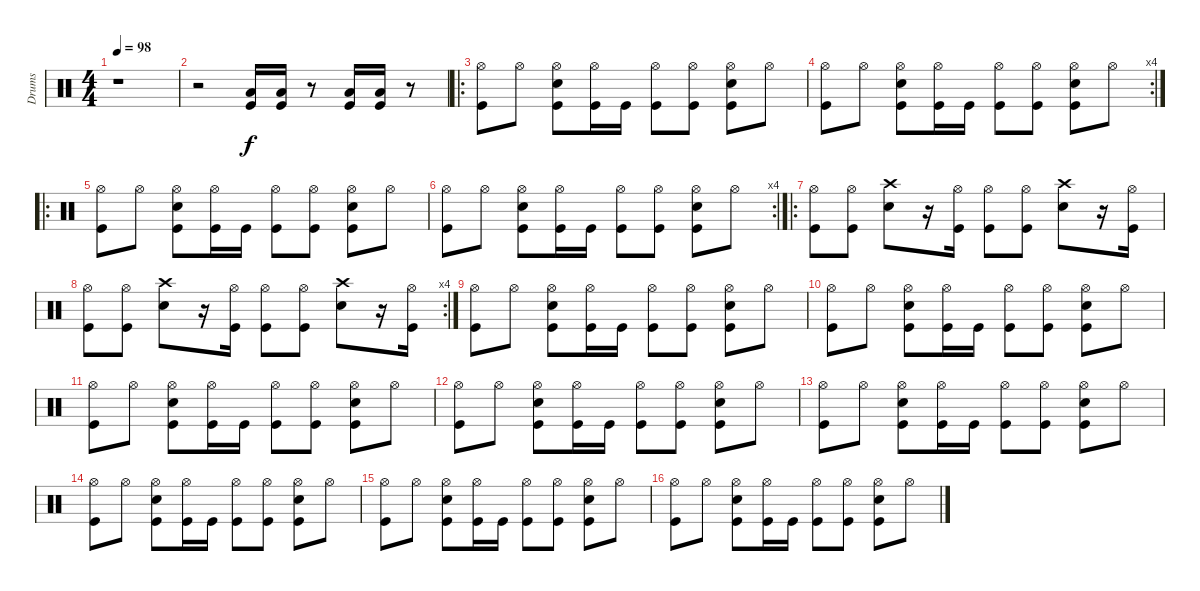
\track ("Drums" "Drums") {instrument percussion}
\staff {score}
\articulation defaults
\ts (4 4)
\tempo 98
\clef neutral
\ks c
r.1{dy f} |
r.2 ("Low Tom (hit)" "Kick (hit)").16 ("Low Tom (hit)" "Kick (hit)").16 r.8 ("Low Tom (hit)" "Kick (hit)").16 ("Low Tom (hit)" "Kick (hit)").16 r.8 |
\ro
("Hi-Hat (open)" "Kick (hit)").8 "Hi-Hat (open)".8 ("Hi-Hat (open)" "Electric Snare (hit)" "Kick (hit)").8 ("Hi-Hat (open)" "Kick (hit)").16 "Kick (hit)".16 ("Hi-Hat (open)" "Kick (hit)").8 ("Hi-Hat (open)" "Kick (hit)").8 ("Hi-Hat (open)" "Electric Snare (hit)" "Kick (hit)").8 "Hi-Hat (open)".8 |
\rc 4
("Hi-Hat (open)" "Kick (hit)").8 "Hi-Hat (open)".8 ("Hi-Hat (open)" "Electric Snare (hit)" "Kick (hit)").8 ("Hi-Hat (open)" "Kick (hit)").16 "Kick (hit)".16 ("Hi-Hat (open)" "Kick (hit)").8 ("Hi-Hat (open)" "Kick (hit)").8 ("Hi-Hat (open)" "Electric Snare (hit)" "Kick (hit)").8 "Hi-Hat (open)".8 |
\ro
("Hi-Hat (open)" "Kick (hit)").8 "Hi-Hat (open)".8 ("Hi-Hat (open)" "Electric Snare (hit)" "Kick (hit)").8 ("Hi-Hat (open)" "Kick (hit)").16 "Kick (hit)".16 ("Hi-Hat (open)" "Kick (hit)").8 ("Hi-Hat (open)" "Kick (hit)").8 ("Hi-Hat (open)" "Electric Snare (hit)" "Kick (hit)").8 "Hi-Hat (open)".8 |
\rc 4
("Hi-Hat (open)" "Kick (hit)").8 "Hi-Hat (open)".8 ("Hi-Hat (open)" "Electric Snare (hit)" "Kick (hit)").8 ("Hi-Hat (open)" "Kick (hit)").16 "Kick (hit)".16 ("Hi-Hat (open)" "Kick (hit)").8 ("Hi-Hat (open)" "Kick (hit)").8 ("Hi-Hat (open)" "Electric Snare (hit)" "Kick (hit)").8 "Hi-Hat (open)".8 |
\ro
("Hi-Hat (open)" "Kick (hit)").8 ("Hi-Hat (open)" "Kick (hit)").8 ("Crash high (hit)" "Electric Snare (hit)").8 r.16 ("Hi-Hat (open)" "Kick (hit)").16 ("Hi-Hat (open)" "Kick (hit)").8 ("Hi-Hat (open)" "Kick (hit)").8 ("Crash high (hit)" "Electric Snare (hit)").8 r.16 ("Hi-Hat (open)" "Kick (hit)").16 |
\rc 4
("Hi-Hat (open)" "Kick (hit)").8 ("Hi-Hat (open)" "Kick (hit)").8 ("Crash high (hit)" "Electric Snare (hit)").8 r.16 ("Hi-Hat (open)" "Kick (hit)").16 ("Hi-Hat (open)" "Kick (hit)").8 ("Hi-Hat (open)" "Kick (hit)").8 ("Crash high (hit)" "Electric Snare (hit)").8 r.16 ("Hi-Hat (open)" "Kick (hit)").16 |
("Hi-Hat (open)" "Kick (hit)").8 "Hi-Hat (open)".8 ("Hi-Hat (open)" "Electric Snare (hit)" "Kick (hit)").8 ("Hi-Hat (open)" "Kick (hit)").16 "Kick (hit)".16 ("Hi-Hat (open)" "Kick (hit)").8 ("Hi-Hat (open)" "Kick (hit)").8 ("Hi-Hat (open)" "Electric Snare (hit)" "Kick (hit)").8 "Hi-Hat (open)".8 |
("Hi-Hat (open)" "Kick (hit)").8 "Hi-Hat (open)".8 ("Hi-Hat (open)" "Electric Snare (hit)" "Kick (hit)").8 ("Hi-Hat (open)" "Kick (hit)").16 "Kick (hit)".16 ("Hi-Hat (open)" "Kick (hit)").8 ("Hi-Hat (open)" "Kick (hit)").8 ("Hi-Hat (open)" "Electric Snare (hit)" "Kick (hit)").8 "Hi-Hat (open)".8 |
("Hi-Hat (open)" "Kick (hit)").8 "Hi-Hat (open)".8 ("Hi-Hat (open)" "Electric Snare (hit)" "Kick (hit)").8 ("Hi-Hat (open)" "Kick (hit)").16 "Kick (hit)".16 ("Hi-Hat (open)" "Kick (hit)").8 ("Hi-Hat (open)" "Kick (hit)").8 ("Hi-Hat (open)" "Electric Snare (hit)" "Kick (hit)").8 "Hi-Hat (open)".8 |
("Hi-Hat (open)" "Kick (hit)").8 "Hi-Hat (open)".8 ("Hi-Hat (open)" "Electric Snare (hit)" "Kick (hit)").8 ("Hi-Hat (open)" "Kick (hit)").16 "Kick (hit)".16 ("Hi-Hat (open)" "Kick (hit)").8 ("Hi-Hat (open)" "Kick (hit)").8 ("Hi-Hat (open)" "Electric Snare (hit)" "Kick (hit)").8 "Hi-Hat (open)".8 |
("Hi-Hat (open)" "Kick (hit)").8 "Hi-Hat (open)".8 ("Hi-Hat (open)" "Electric Snare (hit)" "Kick (hit)").8 ("Hi-Hat (open)" "Kick (hit)").16 "Kick (hit)".16 ("Hi-Hat (open)" "Kick (hit)").8 ("Hi-Hat (open)" "Kick (hit)").8 ("Hi-Hat (open)" "Electric Snare (hit)" "Kick (hit)").8 "Hi-Hat (open)".8 |
("Hi-Hat (open)" "Kick (hit)").8 "Hi-Hat (open)".8 ("Hi-Hat (open)" "Electric Snare (hit)" "Kick (hit)").8 ("Hi-Hat (open)" "Kick (hit)").16 "Kick (hit)".16 ("Hi-Hat (open)" "Kick (hit)").8 ("Hi-Hat (open)" "Kick (hit)").8 ("Hi-Hat (open)" "Electric Snare (hit)" "Kick (hit)").8 "Hi-Hat (open)".8 |
("Hi-Hat (open)" "Kick (hit)").8 "Hi-Hat (open)".8 ("Hi-Hat (open)" "Electric Snare (hit)" "Kick (hit)").8 ("Hi-Hat (open)" "Kick (hit)").16 "Kick (hit)".16 ("Hi-Hat (open)" "Kick (hit)").8 ("Hi-Hat (open)" "Kick (hit)").8 ("Hi-Hat (open)" "Electric Snare (hit)" "Kick (hit)").8 "Hi-Hat (open)".8 |
("Hi-Hat (open)" "Kick (hit)").8 "Hi-Hat (open)".8 ("Hi-Hat (open)" "Electric Snare (hit)" "Kick (hit)").8 ("Hi-Hat (open)" "Kick (hit)").16 "Kick (hit)".16 ("Hi-Hat (open)" "Kick (hit)").8 ("Hi-Hat (open)" "Kick (hit)").8 ("Hi-Hat (open)" "Electric Snare (hit)" "Kick (hit)").8 "Hi-Hat (open)".8
